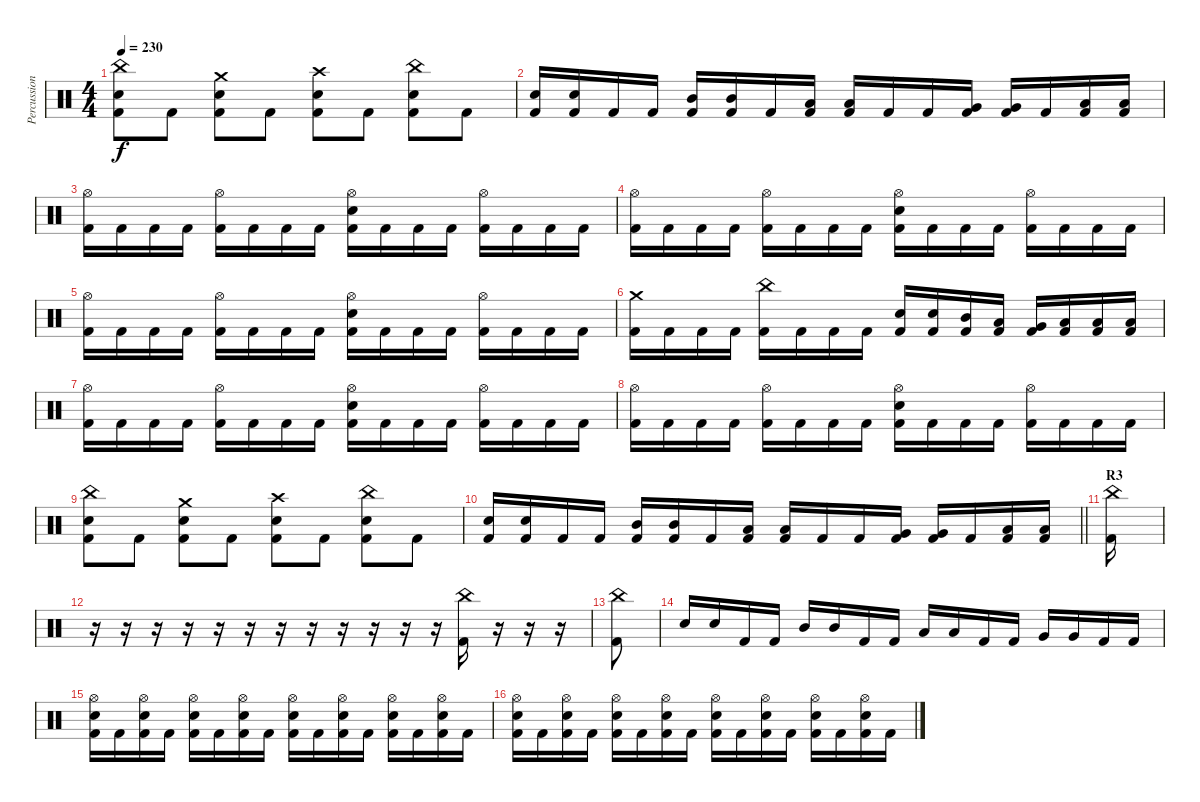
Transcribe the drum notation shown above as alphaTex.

\track ("Percussions" "Percussion") {instrument percussion}
\staff {score}
\articulation defaults
\ts (4 4)
\tempo 230
\clef neutral
\ks c
("China (hit)" "Electric Snare (hit)" "Kick (hit) 2").8{dy f} "Kick (hit) 2".8 ("Crash medium (hit)" "Electric Snare (hit)" "Kick (hit) 2").8 "Kick (hit) 2".8 ("Crash high (hit)" "Electric Snare (hit)" "Kick (hit) 2").8 "Kick (hit) 2".8 ("China (hit)" "Electric Snare (hit)" "Kick (hit) 2").8 "Kick (hit) 2".8 |
("Electric Snare (hit)" "Kick (hit) 2").16 ("Electric Snare (hit)" "Kick (hit) 2").16 "Kick (hit) 2".16 "Kick (hit) 2".16 ("Mid Tom (hit)" "Kick (hit) 2").16 ("Mid Tom (hit)" "Kick (hit) 2").16 "Kick (hit) 2".16 ("Low Tom (hit)" "Kick (hit) 2").16 ("Low Tom (hit)" "Kick (hit) 2").16 "Kick (hit) 2".16 "Kick (hit) 2".16 ("Very Low Tom (hit)" "Kick (hit) 2").16 ("Very Low Tom (hit)" "Kick (hit) 2").16 "Kick (hit) 2".16 ("Low Floor Tom (hit)" "Kick (hit) 2").16 ("Low Floor Tom (hit)" "Kick (hit) 2").16 |
("Hi-Hat (open)" "Kick (hit) 2").16 "Kick (hit) 2".16 "Kick (hit) 2".16 "Kick (hit) 2".16 ("Hi-Hat (open)" "Kick (hit) 2").16 "Kick (hit) 2".16 "Kick (hit) 2".16 "Kick (hit) 2".16 ("Hi-Hat (open)" "Electric Snare (hit)" "Kick (hit) 2").16 "Kick (hit) 2".16 "Kick (hit) 2".16 "Kick (hit) 2".16 ("Hi-Hat (open)" "Kick (hit) 2").16 "Kick (hit) 2".16 "Kick (hit) 2".16 "Kick (hit) 2".16 |
("Hi-Hat (open)" "Kick (hit) 2").16 "Kick (hit) 2".16 "Kick (hit) 2".16 "Kick (hit) 2".16 ("Hi-Hat (open)" "Kick (hit) 2").16 "Kick (hit) 2".16 "Kick (hit) 2".16 "Kick (hit) 2".16 ("Hi-Hat (open)" "Electric Snare (hit)" "Kick (hit) 2").16 "Kick (hit) 2".16 "Kick (hit) 2".16 "Kick (hit) 2".16 ("Hi-Hat (open)" "Kick (hit) 2").16 "Kick (hit) 2".16 "Kick (hit) 2".16 "Kick (hit) 2".16 |
("Hi-Hat (open)" "Kick (hit) 2").16 "Kick (hit) 2".16 "Kick (hit) 2".16 "Kick (hit) 2".16 ("Hi-Hat (open)" "Kick (hit) 2").16 "Kick (hit) 2".16 "Kick (hit) 2".16 "Kick (hit) 2".16 ("Hi-Hat (open)" "Electric Snare (hit)" "Kick (hit) 2").16 "Kick (hit) 2".16 "Kick (hit) 2".16 "Kick (hit) 2".16 ("Hi-Hat (open)" "Kick (hit) 2").16 "Kick (hit) 2".16 "Kick (hit) 2".16 "Kick (hit) 2".16 |
("Crash medium (hit)" "Kick (hit) 2").16 "Kick (hit) 2".16 "Kick (hit) 2".16 "Kick (hit) 2".16 ("China (hit)" "Kick (hit) 2").16 "Kick (hit) 2".16 "Kick (hit) 2".16 "Kick (hit) 2".16 ("Electric Snare (hit)" "Kick (hit) 2").16 ("Electric Snare (hit)" "Kick (hit) 2").16 ("Mid Tom (hit)" "Kick (hit) 2").16 ("Low Tom (hit)" "Kick (hit) 2").16 ("Very Low Tom (hit)" "Kick (hit) 2").16 ("Low Floor Tom (hit)" "Kick (hit) 2").16 ("Low Floor Tom (hit)" "Kick (hit) 2").16 ("Low Floor Tom (hit)" "Kick (hit) 2").16 |
("Hi-Hat (open)" "Kick (hit) 2").16 "Kick (hit) 2".16 "Kick (hit) 2".16 "Kick (hit) 2".16 ("Hi-Hat (open)" "Kick (hit) 2").16 "Kick (hit) 2".16 "Kick (hit) 2".16 "Kick (hit) 2".16 ("Hi-Hat (open)" "Electric Snare (hit)" "Kick (hit) 2").16 "Kick (hit) 2".16 "Kick (hit) 2".16 "Kick (hit) 2".16 ("Hi-Hat (open)" "Kick (hit) 2").16 "Kick (hit) 2".16 "Kick (hit) 2".16 "Kick (hit) 2".16 |
("Hi-Hat (open)" "Kick (hit) 2").16 "Kick (hit) 2".16 "Kick (hit) 2".16 "Kick (hit) 2".16 ("Hi-Hat (open)" "Kick (hit) 2").16 "Kick (hit) 2".16 "Kick (hit) 2".16 "Kick (hit) 2".16 ("Hi-Hat (open)" "Electric Snare (hit)" "Kick (hit) 2").16 "Kick (hit) 2".16 "Kick (hit) 2".16 "Kick (hit) 2".16 ("Hi-Hat (open)" "Kick (hit) 2").16 "Kick (hit) 2".16 "Kick (hit) 2".16 "Kick (hit) 2".16 |
("China (hit)" "Electric Snare (hit)" "Kick (hit) 2").8 "Kick (hit) 2".8 ("Crash medium (hit)" "Electric Snare (hit)" "Kick (hit) 2").8 "Kick (hit) 2".8 ("Crash high (hit)" "Electric Snare (hit)" "Kick (hit) 2").8 "Kick (hit) 2".8 ("China (hit)" "Electric Snare (hit)" "Kick (hit) 2").8 "Kick (hit) 2".8 |
\barLineRight lightlight
("Electric Snare (hit)" "Kick (hit) 2").16 ("Electric Snare (hit)" "Kick (hit) 2").16 "Kick (hit) 2".16 "Kick (hit) 2".16 ("Mid Tom (hit)" "Kick (hit) 2").16 ("Mid Tom (hit)" "Kick (hit) 2").16 "Kick (hit) 2".16 ("Low Tom (hit)" "Kick (hit) 2").16 ("Low Tom (hit)" "Kick (hit) 2").16 "Kick (hit) 2".16 "Kick (hit) 2".16 ("Very Low Tom (hit)" "Kick (hit) 2").16 ("Very Low Tom (hit)" "Kick (hit) 2").16 "Kick (hit) 2".16 ("Low Floor Tom (hit)" "Kick (hit) 2").16 ("Low Floor Tom (hit)" "Kick (hit) 2").16 |
\section ("" "R3")
("China (hit)" "Kick (hit) 2").16 |
r.16 r.16 r.16 r.16 r.16 r.16 r.16 r.16 r.16 r.16 r.16 r.16 ("China (hit)" "Kick (hit) 2").16 r.16 r.16 r.16 |
("China (hit)" "Kick (hit) 2").8 |
"Electric Snare (hit)".16 "Electric Snare (hit)".16 "Kick (hit) 2".16 "Kick (hit) 2".16 "Mid Tom (hit)".16 "Mid Tom (hit)".16 "Kick (hit) 2".16 "Kick (hit) 2".16 "Low Tom (hit)".16 "Low Tom (hit)".16 "Kick (hit) 2".16 "Kick (hit) 2".16 "Very Low Tom (hit)".16 "Very Low Tom (hit)".16 "Kick (hit) 2".16 "Kick (hit) 2".16 |
("Hi-Hat (open)" "Electric Snare (hit)" "Kick (hit) 2").16 "Kick (hit) 2".16 ("Hi-Hat (open)" "Electric Snare (hit)" "Kick (hit) 2").16 "Kick (hit) 2".16 ("Hi-Hat (open)" "Electric Snare (hit)" "Kick (hit) 2").16 "Kick (hit) 2".16 ("Hi-Hat (open)" "Electric Snare (hit)" "Kick (hit) 2").16 "Kick (hit) 2".16 ("Hi-Hat (open)" "Electric Snare (hit)" "Kick (hit) 2").16 "Kick (hit) 2".16 ("Hi-Hat (open)" "Electric Snare (hit)" "Kick (hit) 2").16 "Kick (hit) 2".16 ("Hi-Hat (open)" "Electric Snare (hit)" "Kick (hit) 2").16 "Kick (hit) 2".16 ("Hi-Hat (open)" "Electric Snare (hit)" "Kick (hit) 2").16 "Kick (hit) 2".16 |
("Hi-Hat (open)" "Electric Snare (hit)" "Kick (hit) 2").16 "Kick (hit) 2".16 ("Hi-Hat (open)" "Electric Snare (hit)" "Kick (hit) 2").16 "Kick (hit) 2".16 ("Hi-Hat (open)" "Electric Snare (hit)" "Kick (hit) 2").16 "Kick (hit) 2".16 ("Hi-Hat (open)" "Electric Snare (hit)" "Kick (hit) 2").16 "Kick (hit) 2".16 ("Hi-Hat (open)" "Electric Snare (hit)" "Kick (hit) 2").16 "Kick (hit) 2".16 ("Hi-Hat (open)" "Electric Snare (hit)" "Kick (hit) 2").16 "Kick (hit) 2".16 ("Hi-Hat (open)" "Electric Snare (hit)" "Kick (hit) 2").16 "Kick (hit) 2".16 ("Hi-Hat (open)" "Electric Snare (hit)" "Kick (hit) 2").16 "Kick (hit) 2".16
